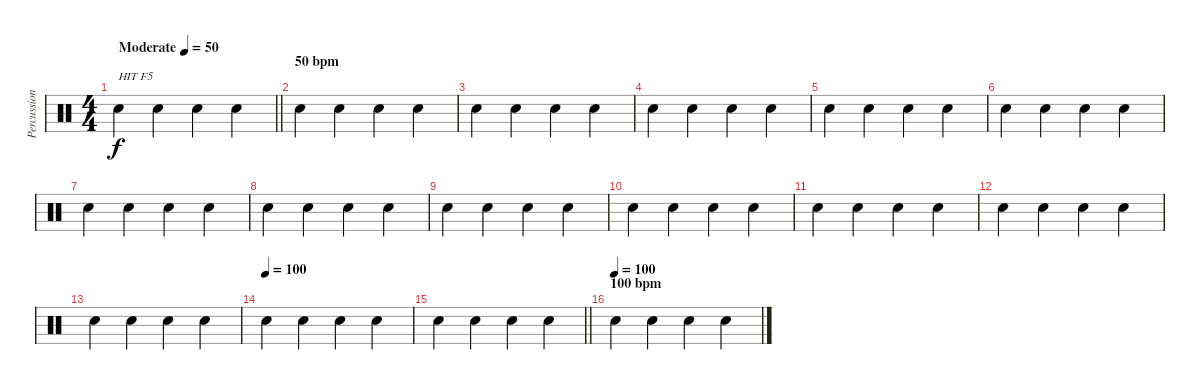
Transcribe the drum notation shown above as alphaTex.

\track ("Percussion" "Percussion") {instrument percussion}
\staff {score}
\articulation defaults
\ts (4 4)
\tempo (50 "Moderate")
\clef neutral
\barLineRight lightlight
\ks c "Snare (hit) 2".4{txt "HIT F5" dy f} "Snare (hit) 2".4 "Snare (hit) 2".4 "Snare (hit) 2".4
|
\section ("" "50 bpm")
"Snare (hit) 2".4 "Snare (hit) 2".4 "Snare (hit) 2".4 "Snare (hit) 2".4 |
"Snare (hit) 2".4 "Snare (hit) 2".4 "Snare (hit) 2".4 "Snare (hit) 2".4 |
"Snare (hit) 2".4 "Snare (hit) 2".4 "Snare (hit) 2".4 "Snare (hit) 2".4 |
"Snare (hit) 2".4 "Snare (hit) 2".4 "Snare (hit) 2".4 "Snare (hit) 2".4 |
"Snare (hit) 2".4 "Snare (hit) 2".4 "Snare (hit) 2".4 "Snare (hit) 2".4 |
"Snare (hit) 2".4 "Snare (hit) 2".4 "Snare (hit) 2".4 "Snare (hit) 2".4 |
"Snare (hit) 2".4 "Snare (hit) 2".4 "Snare (hit) 2".4 "Snare (hit) 2".4 |
"Snare (hit) 2".4 "Snare (hit) 2".4 "Snare (hit) 2".4 "Snare (hit) 2".4 |
"Snare (hit) 2".4 "Snare (hit) 2".4 "Snare (hit) 2".4 "Snare (hit) 2".4 |
"Snare (hit) 2".4 "Snare (hit) 2".4 "Snare (hit) 2".4 "Snare (hit) 2".4 |
"Snare (hit) 2".4 "Snare (hit) 2".4 "Snare (hit) 2".4 "Snare (hit) 2".4 |
"Snare (hit) 2".4 "Snare (hit) 2".4 "Snare (hit) 2".4 "Snare (hit) 2".4 |
\tempo (100)
"Snare (hit) 2".4 "Snare (hit) 2".4 "Snare (hit) 2".4 "Snare (hit) 2".4 |
\barLineRight lightlight "Snare (hit) 2".4 "Snare (hit) 2".4 "Snare (hit) 2".4 "Snare (hit) 2".4
|
\section ("" "100 bpm")
\tempo (100)
"Snare (hit) 2".4 "Snare (hit) 2".4 "Snare (hit) 2".4 "Snare (hit) 2".4
